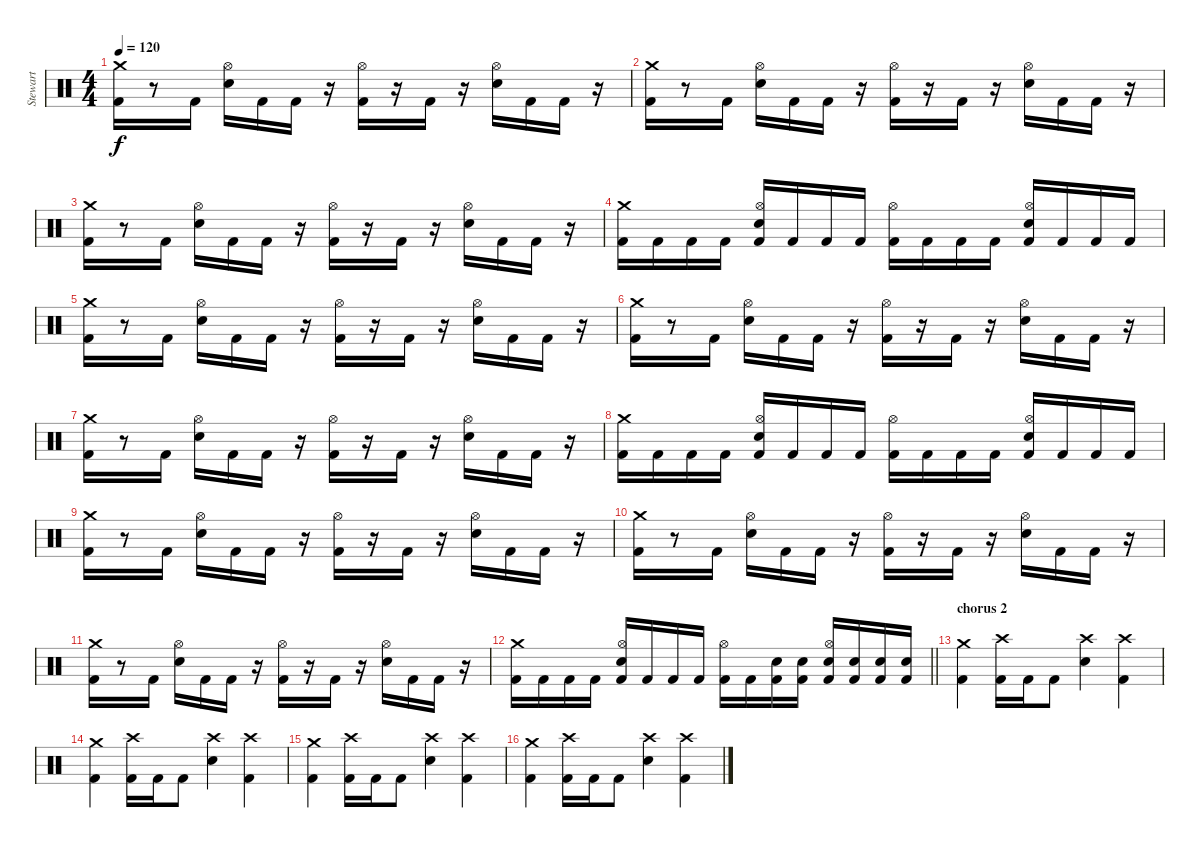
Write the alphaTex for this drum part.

\track ("Stewart" "Stewart") {instrument percussion}
\staff {score}
\articulation defaults
\ts (4 4)
\tempo 120
\clef neutral
\ks c
("Crash medium (hit)" "Kick (hit) 2").16{dy f} r.8 "Kick (hit) 2".16 ("Hi-Hat (open)" "Electric Snare (hit)").16 "Kick (hit) 2".16 "Kick (hit) 2".16 r.16 ("Hi-Hat (open)" "Kick (hit) 2").16 r.16 "Kick (hit) 2".16 r.16 ("Hi-Hat (open)" "Electric Snare (hit)").16 "Kick (hit) 2".16 "Kick (hit) 2".16 r.16 |
("Crash medium (hit)" "Kick (hit) 2").16 r.8 "Kick (hit) 2".16 ("Hi-Hat (open)" "Electric Snare (hit)").16 "Kick (hit) 2".16 "Kick (hit) 2".16 r.16 ("Hi-Hat (open)" "Kick (hit) 2").16 r.16 "Kick (hit) 2".16 r.16 ("Hi-Hat (open)" "Electric Snare (hit)").16 "Kick (hit) 2".16 "Kick (hit) 2".16 r.16 |
("Crash medium (hit)" "Kick (hit) 2").16 r.8 "Kick (hit) 2".16 ("Hi-Hat (open)" "Electric Snare (hit)").16 "Kick (hit) 2".16 "Kick (hit) 2".16 r.16 ("Hi-Hat (open)" "Kick (hit) 2").16 r.16 "Kick (hit) 2".16 r.16 ("Hi-Hat (open)" "Electric Snare (hit)").16 "Kick (hit) 2".16 "Kick (hit) 2".16 r.16 |
("Crash medium (hit)" "Kick (hit) 2").16 "Kick (hit) 2".16 "Kick (hit) 2".16 "Kick (hit) 2".16 ("Hi-Hat (open)" "Electric Snare (hit)" "Kick (hit) 2").16 "Kick (hit) 2".16 "Kick (hit) 2".16 "Kick (hit) 2".16 ("Hi-Hat (open)" "Kick (hit) 2").16 "Kick (hit) 2".16 "Kick (hit) 2".16 "Kick (hit) 2".16 ("Hi-Hat (open)" "Electric Snare (hit)" "Kick (hit) 2").16 "Kick (hit) 2".16 "Kick (hit) 2".16 "Kick (hit) 2".16 |
("Crash medium (hit)" "Kick (hit) 2").16 r.8 "Kick (hit) 2".16 ("Hi-Hat (open)" "Electric Snare (hit)").16 "Kick (hit) 2".16 "Kick (hit) 2".16 r.16 ("Hi-Hat (open)" "Kick (hit) 2").16 r.16 "Kick (hit) 2".16 r.16 ("Hi-Hat (open)" "Electric Snare (hit)").16 "Kick (hit) 2".16 "Kick (hit) 2".16 r.16 |
("Crash medium (hit)" "Kick (hit) 2").16 r.8 "Kick (hit) 2".16 ("Hi-Hat (open)" "Electric Snare (hit)").16 "Kick (hit) 2".16 "Kick (hit) 2".16 r.16 ("Hi-Hat (open)" "Kick (hit) 2").16 r.16 "Kick (hit) 2".16 r.16 ("Hi-Hat (open)" "Electric Snare (hit)").16 "Kick (hit) 2".16 "Kick (hit) 2".16 r.16 |
("Crash medium (hit)" "Kick (hit) 2").16 r.8 "Kick (hit) 2".16 ("Hi-Hat (open)" "Electric Snare (hit)").16 "Kick (hit) 2".16 "Kick (hit) 2".16 r.16 ("Hi-Hat (open)" "Kick (hit) 2").16 r.16 "Kick (hit) 2".16 r.16 ("Hi-Hat (open)" "Electric Snare (hit)").16 "Kick (hit) 2".16 "Kick (hit) 2".16 r.16 |
("Crash medium (hit)" "Kick (hit) 2").16 "Kick (hit) 2".16 "Kick (hit) 2".16 "Kick (hit) 2".16 ("Hi-Hat (open)" "Electric Snare (hit)" "Kick (hit) 2").16 "Kick (hit) 2".16 "Kick (hit) 2".16 "Kick (hit) 2".16 ("Hi-Hat (open)" "Kick (hit) 2").16 "Kick (hit) 2".16 "Kick (hit) 2".16 "Kick (hit) 2".16 ("Hi-Hat (open)" "Electric Snare (hit)" "Kick (hit) 2").16 "Kick (hit) 2".16 "Kick (hit) 2".16 "Kick (hit) 2".16 |
("Crash medium (hit)" "Kick (hit) 2").16 r.8 "Kick (hit) 2".16 ("Hi-Hat (open)" "Electric Snare (hit)").16 "Kick (hit) 2".16 "Kick (hit) 2".16 r.16 ("Hi-Hat (open)" "Kick (hit) 2").16 r.16 "Kick (hit) 2".16 r.16 ("Hi-Hat (open)" "Electric Snare (hit)").16 "Kick (hit) 2".16 "Kick (hit) 2".16 r.16 |
("Crash medium (hit)" "Kick (hit) 2").16 r.8 "Kick (hit) 2".16 ("Hi-Hat (open)" "Electric Snare (hit)").16 "Kick (hit) 2".16 "Kick (hit) 2".16 r.16 ("Hi-Hat (open)" "Kick (hit) 2").16 r.16 "Kick (hit) 2".16 r.16 ("Hi-Hat (open)" "Electric Snare (hit)").16 "Kick (hit) 2".16 "Kick (hit) 2".16 r.16 |
("Crash medium (hit)" "Kick (hit) 2").16 r.8 "Kick (hit) 2".16 ("Hi-Hat (open)" "Electric Snare (hit)").16 "Kick (hit) 2".16 "Kick (hit) 2".16 r.16 ("Hi-Hat (open)" "Kick (hit) 2").16 r.16 "Kick (hit) 2".16 r.16 ("Hi-Hat (open)" "Electric Snare (hit)").16 "Kick (hit) 2".16 "Kick (hit) 2".16 r.16 |
\barLineRight lightlight
("Crash medium (hit)" "Kick (hit) 2").16 "Kick (hit) 2".16 "Kick (hit) 2".16 "Kick (hit) 2".16 ("Hi-Hat (open)" "Electric Snare (hit)" "Kick (hit) 2").16 "Kick (hit) 2".16 "Kick (hit) 2".16 "Kick (hit) 2".16 ("Hi-Hat (open)" "Kick (hit) 2").16 "Kick (hit) 2".16 ("Electric Snare (hit)" "Kick (hit) 2").16 ("Electric Snare (hit)" "Kick (hit) 2").16 ("Hi-Hat (open)" "Electric Snare (hit)" "Kick (hit) 2").16 ("Electric Snare (hit)" "Kick (hit) 2").16 ("Electric Snare (hit)" "Kick (hit) 2").16 ("Electric Snare (hit)" "Kick (hit) 2").16 |
\section ("" "chorus 2")
("Crash medium (hit)" "Kick (hit) 2").4 ("Crash high (hit)" "Kick (hit) 2").16 "Kick (hit) 2".16 "Kick (hit) 2".8 ("Crash high (hit)" "Electric Snare (hit)").4 ("Crash high (hit)" "Kick (hit) 2").4 |
("Crash medium (hit)" "Kick (hit) 2").4 ("Crash high (hit)" "Kick (hit) 2").16 "Kick (hit) 2".16 "Kick (hit) 2".8 ("Crash high (hit)" "Electric Snare (hit)").4 ("Crash high (hit)" "Kick (hit) 2").4 |
("Crash medium (hit)" "Kick (hit) 2").4 ("Crash high (hit)" "Kick (hit) 2").16 "Kick (hit) 2".16 "Kick (hit) 2".8 ("Crash high (hit)" "Electric Snare (hit)").4 ("Crash high (hit)" "Kick (hit) 2").4 |
("Crash medium (hit)" "Kick (hit) 2").4 ("Crash high (hit)" "Kick (hit) 2").16 "Kick (hit) 2".16 "Kick (hit) 2".8 ("Crash high (hit)" "Electric Snare (hit)").4 ("Crash high (hit)" "Kick (hit) 2").4
